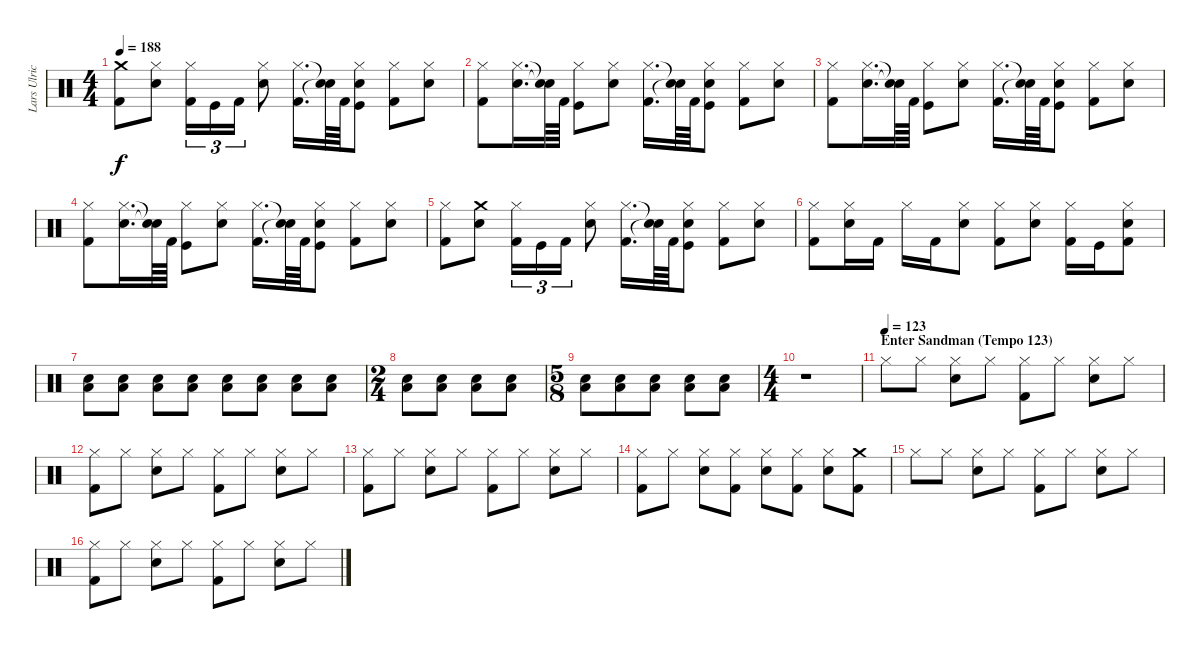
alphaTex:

\track ("Lars Ulrich (Drums)" "Lars Ulric") {instrument percussion}
\staff {score}
\articulation defaults
\ts (4 4)
\tempo 188
\clef neutral
\ks c
("Crash medium (hit)" "Kick (hit) 2").8{dy f} ("Snare (hit) 2" "Hi-Hat (closed)").8 ("Kick (hit) 2" "Hi-Hat (closed)").16{tu (3 2)} "Kick (hit)".16{tu (3 2)} "Kick (hit) 2".16{tu (3 2)} ("Snare (hit) 2" "Hi-Hat (closed)").8 ("Kick (hit) 2" "Hi-Hat (closed)").16{d} ("Snare (hit)"{t} "Snare (hit)"{t}).64 "Kick (hit) 2".64 ("Kick (hit)" "Snare (hit) 2" "Hi-Hat (closed)").8 ("Kick (hit) 2" "Hi-Hat (closed)").8 ("Snare (hit) 2" "Hi-Hat (closed)").8 |
("Kick (hit) 2" "Hi-Hat (closed)").8 ("Snare (hit) 2" "Hi-Hat (closed)").16{d} ("Snare (hit)"{t} "Snare (hit)"{t}).64 "Kick (hit) 2".64 ("Kick (hit)" "Hi-Hat (closed)").8 ("Snare (hit) 2" "Hi-Hat (closed)").8 ("Kick (hit) 2" "Hi-Hat (closed)").16{d} ("Snare (hit)"{t} "Snare (hit)"{t}).64 "Kick (hit) 2".64 ("Kick (hit)" "Snare (hit) 2" "Hi-Hat (closed)").8 ("Kick (hit) 2" "Hi-Hat (closed)").8 ("Snare (hit) 2" "Hi-Hat (closed)").8 |
("Kick (hit) 2" "Hi-Hat (closed)").8 ("Snare (hit) 2" "Hi-Hat (closed)").16{d} ("Snare (hit)"{t} "Snare (hit)"{t}).64 "Kick (hit) 2".64 ("Kick (hit)" "Hi-Hat (closed)").8 ("Snare (hit) 2" "Hi-Hat (closed)").8 ("Kick (hit) 2" "Hi-Hat (closed)").16{d} ("Snare (hit)"{t} "Snare (hit)"{t}).64 "Kick (hit) 2".64 ("Kick (hit)" "Snare (hit) 2" "Hi-Hat (closed)").8 ("Kick (hit) 2" "Hi-Hat (closed)").8 ("Snare (hit) 2" "Hi-Hat (closed)").8 |
("Kick (hit) 2" "Hi-Hat (closed)").8 ("Snare (hit) 2" "Hi-Hat (closed)").16{d} ("Snare (hit)"{t} "Snare (hit)"{t}).64 "Kick (hit) 2".64 ("Kick (hit)" "Hi-Hat (closed)").8 ("Snare (hit) 2" "Hi-Hat (closed)").8 ("Kick (hit) 2" "Hi-Hat (closed)").16{d} ("Snare (hit)"{t} "Snare (hit)"{t}).64 "Kick (hit) 2".64 ("Kick (hit)" "Snare (hit) 2" "Hi-Hat (closed)").8 ("Kick (hit) 2" "Hi-Hat (closed)").8 ("Snare (hit) 2" "Hi-Hat (closed)").8 |
("Hi-Hat (closed)" "Kick (hit) 2").8 ("Crash medium (hit)" "Snare (hit) 2").8 ("Kick (hit) 2" "Hi-Hat (closed)").16{tu (3 2)} "Kick (hit)".16{tu (3 2)} "Kick (hit) 2".16{tu (3 2)} ("Snare (hit) 2" "Hi-Hat (closed)").8 ("Kick (hit) 2" "Hi-Hat (closed)").16{d} ("Snare (hit)"{t} "Snare (hit)"{t}).64 "Kick (hit) 2".64 ("Kick (hit)" "Snare (hit) 2" "Hi-Hat (closed)").8 ("Kick (hit) 2" "Hi-Hat (closed)").8 ("Snare (hit) 2" "Hi-Hat (closed)").8 |
("Hi-Hat (closed)" "Kick (hit) 2").8 ("Snare (hit) 2" "Hi-Hat (closed)").16 "Kick (hit) 2".16 "Hi-Hat (closed)".16 "Kick (hit) 2".16 ("Snare (hit) 2" "Hi-Hat (closed)").8 ("Hi-Hat (closed)" "Kick (hit) 2").8 ("Snare (hit) 2" "Hi-Hat (closed)").8 ("Hi-Hat (closed)" "Kick (hit) 2").16 "Kick (hit)".16 ("Kick (hit) 2" "Snare (hit) 2" "Hi-Hat (closed)").8 |
("Snare (hit) 2" "Low Tom (hit)").8 ("Snare (hit) 2" "Low Tom (hit)").8 ("Snare (hit) 2" "Low Tom (hit)").8 ("Snare (hit) 2" "Low Tom (hit)").8 ("Snare (hit) 2" "Low Tom (hit)").8 ("Snare (hit) 2" "Low Tom (hit)").8 ("Snare (hit) 2" "Low Tom (hit)").8 ("Snare (hit) 2" "Low Tom (hit)").8 |
\ts (2 4)
("Snare (hit) 2" "Low Tom (hit)").8 ("Snare (hit) 2" "Low Tom (hit)").8 ("Snare (hit) 2" "Low Tom (hit)").8 ("Snare (hit) 2" "Low Tom (hit)").8 |
\ts (5 8)
("Snare (hit) 2" "Low Tom (hit)").8 ("Snare (hit) 2" "Low Tom (hit)").8 ("Snare (hit) 2" "Low Tom (hit)").8 ("Snare (hit) 2" "Low Tom (hit)").8 ("Snare (hit) 2" "Low Tom (hit)").8 |
\ts (4 4)
r.1 |
\section ("" "Enter Sandman (Tempo 123)")
\tempo (123)
"Hi-Hat (closed)".8 "Hi-Hat (closed)".8 ("Snare (hit) 2" "Hi-Hat (closed)").8 "Hi-Hat (closed)".8 ("Kick (hit) 2" "Hi-Hat (closed)").8 "Hi-Hat (closed)".8 ("Snare (hit) 2" "Hi-Hat (closed)").8 "Hi-Hat (closed)".8 |
("Kick (hit) 2" "Hi-Hat (closed)").8 "Hi-Hat (closed)".8 ("Snare (hit) 2" "Hi-Hat (closed)").8 "Hi-Hat (closed)".8 ("Kick (hit) 2" "Hi-Hat (closed)").8 "Hi-Hat (closed)".8 ("Snare (hit) 2" "Hi-Hat (closed)").8 "Hi-Hat (closed)".8 |
("Kick (hit) 2" "Hi-Hat (closed)").8 "Hi-Hat (closed)".8 ("Snare (hit) 2" "Hi-Hat (closed)").8 "Hi-Hat (closed)".8 ("Kick (hit) 2" "Hi-Hat (closed)").8 "Hi-Hat (closed)".8 ("Snare (hit) 2" "Hi-Hat (closed)").8 "Hi-Hat (closed)".8 |
("Hi-Hat (closed)" "Kick (hit) 2").8 "Hi-Hat (closed)".8 ("Snare (hit) 2" "Hi-Hat (closed)").8 ("Kick (hit) 2" "Hi-Hat (closed)").8 ("Snare (hit) 2" "Hi-Hat (closed)").8 ("Hi-Hat (closed)" "Kick (hit) 2").8 ("Snare (hit) 2" "Hi-Hat (closed)").8 ("Crash medium (hit)" "Kick (hit) 2").8 |
"Hi-Hat (closed)".8 "Hi-Hat (closed)".8 ("Snare (hit) 2" "Hi-Hat (closed)").8 "Hi-Hat (closed)".8 ("Kick (hit) 2" "Hi-Hat (closed)").8 "Hi-Hat (closed)".8 ("Snare (hit) 2" "Hi-Hat (closed)").8 "Hi-Hat (closed)".8 |
("Kick (hit) 2" "Hi-Hat (closed)").8 "Hi-Hat (closed)".8 ("Snare (hit) 2" "Hi-Hat (closed)").8 "Hi-Hat (closed)".8 ("Kick (hit) 2" "Hi-Hat (closed)").8 "Hi-Hat (closed)".8 ("Snare (hit) 2" "Hi-Hat (closed)").8 "Hi-Hat (closed)".8
